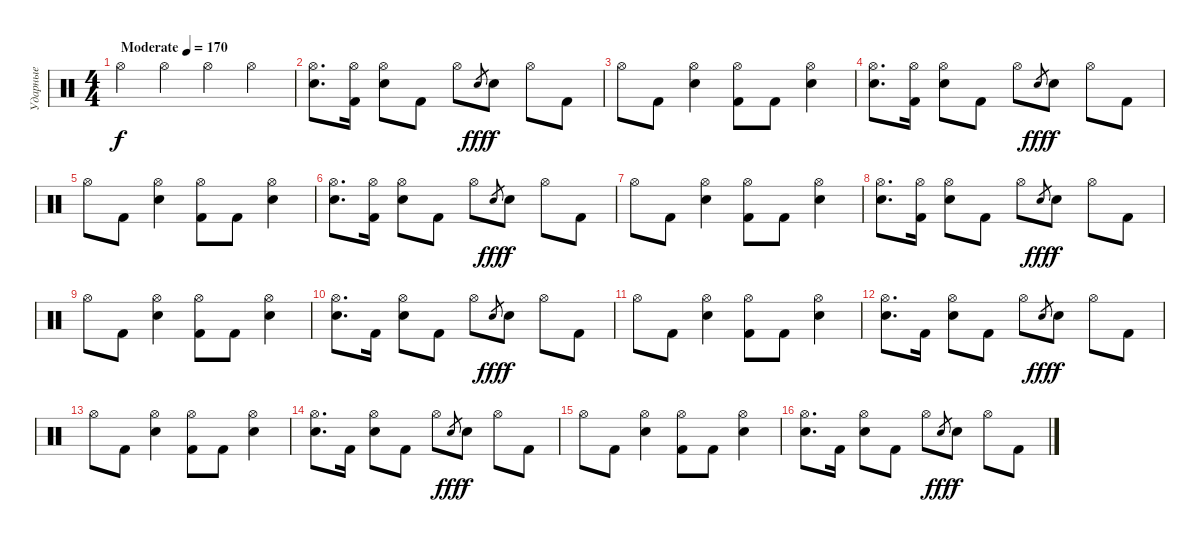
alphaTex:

\track ("Ударные" "Ударные") {instrument percussion}
\staff {score}
\articulation defaults
\ts (4 4)
\tempo (170 "Moderate")
\clef neutral
\ks c "Hi-Hat (open)".4{dy f} "Hi-Hat (open)".4 "Hi-Hat (open)".4 "Hi-Hat (open)".4
|
("Electric Snare (hit)" "Hi-Hat (open)").8{d} ("Hi-Hat (open)" "Kick (hit) 2").16 ("Electric Snare (hit)" "Hi-Hat (open)").8 "Kick (hit) 2".8 "Hi-Hat (open)".8 "Electric Snare (hit)"{x}.8{gr dy fff} "Electric Snare (hit)".8{dy f} "Hi-Hat (open)".8 "Kick (hit) 2".8 |
"Hi-Hat (open)".8 "Kick (hit) 2".8 ("Electric Snare (hit)" "Hi-Hat (open)").4 ("Kick (hit) 2" "Hi-Hat (open)").8 "Kick (hit) 2".8 ("Electric Snare (hit)" "Hi-Hat (open)").4 |
("Electric Snare (hit)" "Hi-Hat (open)").8{d} ("Hi-Hat (open)" "Kick (hit) 2").16 ("Electric Snare (hit)" "Hi-Hat (open)").8 "Kick (hit) 2".8 "Hi-Hat (open)".8 "Electric Snare (hit)"{x}.8{gr dy fff} "Electric Snare (hit)".8{dy f} "Hi-Hat (open)".8 "Kick (hit) 2".8 |
"Hi-Hat (open)".8 "Kick (hit) 2".8 ("Electric Snare (hit)" "Hi-Hat (open)").4 ("Kick (hit) 2" "Hi-Hat (open)").8 "Kick (hit) 2".8 ("Electric Snare (hit)" "Hi-Hat (open)").4 |
("Electric Snare (hit)" "Hi-Hat (open)").8{d} ("Hi-Hat (open)" "Kick (hit) 2").16 ("Electric Snare (hit)" "Hi-Hat (open)").8 "Kick (hit) 2".8 "Hi-Hat (open)".8 "Electric Snare (hit)"{x}.8{gr dy fff} "Electric Snare (hit)".8{dy f} "Hi-Hat (open)".8 "Kick (hit) 2".8 |
"Hi-Hat (open)".8 "Kick (hit) 2".8 ("Electric Snare (hit)" "Hi-Hat (open)").4 ("Kick (hit) 2" "Hi-Hat (open)").8 "Kick (hit) 2".8 ("Electric Snare (hit)" "Hi-Hat (open)").4 |
("Electric Snare (hit)" "Hi-Hat (open)").8{d} ("Hi-Hat (open)" "Kick (hit) 2").16 ("Electric Snare (hit)" "Hi-Hat (open)").8 "Kick (hit) 2".8 "Hi-Hat (open)".8 "Electric Snare (hit)"{x}.8{gr dy fff} "Electric Snare (hit)".8{dy f} "Hi-Hat (open)".8 "Kick (hit) 2".8 |
"Hi-Hat (open)".8 "Kick (hit) 2".8 ("Electric Snare (hit)" "Hi-Hat (open)").4 ("Kick (hit) 2" "Hi-Hat (open)").8 "Kick (hit) 2".8 ("Electric Snare (hit)" "Hi-Hat (open)").4 |
("Electric Snare (hit)" "Hi-Hat (open)").8{d} "Kick (hit) 2".16 ("Electric Snare (hit)" "Hi-Hat (open)").8 "Kick (hit) 2".8 "Hi-Hat (open)".8 "Electric Snare (hit)"{x}.8{gr dy fff} "Electric Snare (hit)".8{dy f} "Hi-Hat (open)".8 "Kick (hit) 2".8 |
"Hi-Hat (open)".8 "Kick (hit) 2".8 ("Electric Snare (hit)" "Hi-Hat (open)").4 ("Kick (hit) 2" "Hi-Hat (open)").8 "Kick (hit) 2".8 ("Electric Snare (hit)" "Hi-Hat (open)").4 |
("Electric Snare (hit)" "Hi-Hat (open)").8{d} "Kick (hit) 2".16 ("Electric Snare (hit)" "Hi-Hat (open)").8 "Kick (hit) 2".8 "Hi-Hat (open)".8 "Electric Snare (hit)"{x}.8{gr dy fff} "Electric Snare (hit)".8{dy f} "Hi-Hat (open)".8 "Kick (hit) 2".8 |
"Hi-Hat (open)".8 "Kick (hit) 2".8 ("Electric Snare (hit)" "Hi-Hat (open)").4 ("Kick (hit) 2" "Hi-Hat (open)").8 "Kick (hit) 2".8 ("Electric Snare (hit)" "Hi-Hat (open)").4 |
("Electric Snare (hit)" "Hi-Hat (open)").8{d} "Kick (hit) 2".16 ("Electric Snare (hit)" "Hi-Hat (open)").8 "Kick (hit) 2".8 "Hi-Hat (open)".8 "Electric Snare (hit)"{x}.8{gr dy fff} "Electric Snare (hit)".8{dy f} "Hi-Hat (open)".8 "Kick (hit) 2".8 |
"Hi-Hat (open)".8 "Kick (hit) 2".8 ("Electric Snare (hit)" "Hi-Hat (open)").4 ("Kick (hit) 2" "Hi-Hat (open)").8 "Kick (hit) 2".8 ("Electric Snare (hit)" "Hi-Hat (open)").4 |
("Electric Snare (hit)" "Hi-Hat (open)").8{d} "Kick (hit) 2".16 ("Electric Snare (hit)" "Hi-Hat (open)").8 "Kick (hit) 2".8 "Hi-Hat (open)".8 "Electric Snare (hit)"{x}.8{gr dy fff} "Electric Snare (hit)".8{dy f} "Hi-Hat (open)".8 "Kick (hit) 2".8
